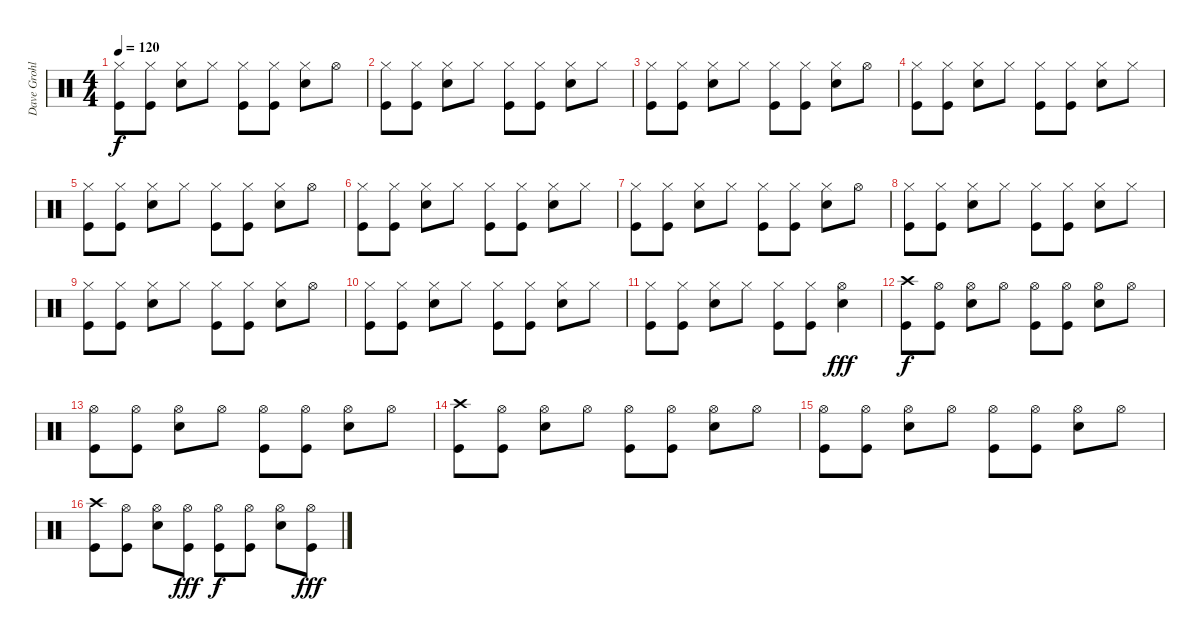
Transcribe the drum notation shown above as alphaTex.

\track ("Dave Grohl - Drums" "Dave Grohl") {instrument percussion}
\staff {score}
\articulation defaults
\ts (4 4)
\tempo 120
\clef neutral
\ks c
("Hi-Hat (closed)" "Kick (hit)").8{dy f} ("Hi-Hat (closed)" "Kick (hit)").8 ("Hi-Hat (closed)" "Snare (hit) 2").8 "Hi-Hat (closed)".8 ("Hi-Hat (closed)" "Kick (hit)").8 ("Hi-Hat (closed)" "Kick (hit)").8 ("Hi-Hat (closed)" "Snare (hit) 2").8 "Hi-Hat (open)".8 |
("Hi-Hat (closed)" "Kick (hit)").8 ("Hi-Hat (closed)" "Kick (hit)").8 ("Hi-Hat (closed)" "Snare (hit) 2").8 "Hi-Hat (closed)".8 ("Hi-Hat (closed)" "Kick (hit)").8 ("Hi-Hat (closed)" "Kick (hit)").8 ("Hi-Hat (closed)" "Snare (hit) 2").8 "Hi-Hat (closed)".8 |
("Hi-Hat (closed)" "Kick (hit)").8 ("Hi-Hat (closed)" "Kick (hit)").8 ("Hi-Hat (closed)" "Snare (hit) 2").8 "Hi-Hat (closed)".8 ("Hi-Hat (closed)" "Kick (hit)").8 ("Hi-Hat (closed)" "Kick (hit)").8 ("Hi-Hat (closed)" "Snare (hit) 2").8 "Hi-Hat (open)".8 |
("Hi-Hat (closed)" "Kick (hit)").8 ("Hi-Hat (closed)" "Kick (hit)").8 ("Hi-Hat (closed)" "Snare (hit) 2").8 "Hi-Hat (closed)".8 ("Hi-Hat (closed)" "Kick (hit)").8 ("Hi-Hat (closed)" "Kick (hit)").8 ("Hi-Hat (closed)" "Snare (hit) 2").8 "Hi-Hat (closed)".8 |
("Hi-Hat (closed)" "Kick (hit)").8 ("Hi-Hat (closed)" "Kick (hit)").8 ("Hi-Hat (closed)" "Snare (hit) 2").8 "Hi-Hat (closed)".8 ("Hi-Hat (closed)" "Kick (hit)").8 ("Hi-Hat (closed)" "Kick (hit)").8 ("Hi-Hat (closed)" "Snare (hit) 2").8 "Hi-Hat (open)".8 |
("Hi-Hat (closed)" "Kick (hit)").8 ("Hi-Hat (closed)" "Kick (hit)").8 ("Hi-Hat (closed)" "Snare (hit) 2").8 "Hi-Hat (closed)".8 ("Hi-Hat (closed)" "Kick (hit)").8 ("Hi-Hat (closed)" "Kick (hit)").8 ("Hi-Hat (closed)" "Snare (hit) 2").8 "Hi-Hat (closed)".8 |
("Hi-Hat (closed)" "Kick (hit)").8 ("Hi-Hat (closed)" "Kick (hit)").8 ("Hi-Hat (closed)" "Snare (hit) 2").8 "Hi-Hat (closed)".8 ("Hi-Hat (closed)" "Kick (hit)").8 ("Hi-Hat (closed)" "Kick (hit)").8 ("Hi-Hat (closed)" "Snare (hit) 2").8 "Hi-Hat (open)".8 |
("Hi-Hat (closed)" "Kick (hit)").8 ("Hi-Hat (closed)" "Kick (hit)").8 ("Hi-Hat (closed)" "Snare (hit) 2").8 "Hi-Hat (closed)".8 ("Hi-Hat (closed)" "Kick (hit)").8 ("Hi-Hat (closed)" "Kick (hit)").8 ("Hi-Hat (closed)" "Snare (hit) 2").8 "Hi-Hat (closed)".8 |
("Hi-Hat (closed)" "Kick (hit)").8 ("Hi-Hat (closed)" "Kick (hit)").8 ("Hi-Hat (closed)" "Snare (hit) 2").8 "Hi-Hat (closed)".8 ("Hi-Hat (closed)" "Kick (hit)").8 ("Hi-Hat (closed)" "Kick (hit)").8 ("Hi-Hat (closed)" "Snare (hit) 2").8 "Hi-Hat (open)".8 |
("Hi-Hat (closed)" "Kick (hit)").8 ("Hi-Hat (closed)" "Kick (hit)").8 ("Hi-Hat (closed)" "Snare (hit) 2").8 "Hi-Hat (closed)".8 ("Hi-Hat (closed)" "Kick (hit)").8 ("Hi-Hat (closed)" "Kick (hit)").8 ("Hi-Hat (closed)" "Snare (hit) 2").8 "Hi-Hat (closed)".8 |
("Hi-Hat (closed)" "Kick (hit)").8 ("Hi-Hat (closed)" "Kick (hit)").8 ("Hi-Hat (closed)" "Snare (hit) 2").8 "Hi-Hat (closed)".8 ("Hi-Hat (closed)" "Kick (hit)").8 ("Hi-Hat (closed)" "Kick (hit)").8 ("Hi-Hat (open)" "Snare (hit) 2").4{dy fff} |
("Crash high (hit)" "Kick (hit)").8{dy f} ("Hi-Hat (open)" "Kick (hit)").8 ("Hi-Hat (open)" "Snare (hit) 2").8 "Hi-Hat (open)".8 ("Hi-Hat (open)" "Kick (hit)").8 ("Hi-Hat (open)" "Kick (hit)").8 ("Hi-Hat (open)" "Snare (hit) 2").8 "Hi-Hat (open)".8 |
("Hi-Hat (open)" "Kick (hit)").8 ("Hi-Hat (open)" "Kick (hit)").8 ("Hi-Hat (open)" "Snare (hit) 2").8 "Hi-Hat (open)".8 ("Hi-Hat (open)" "Kick (hit)").8 ("Hi-Hat (open)" "Kick (hit)").8 ("Hi-Hat (open)" "Snare (hit) 2").8 "Hi-Hat (open)".8 |
("Crash high (hit)" "Kick (hit)").8 ("Hi-Hat (open)" "Kick (hit)").8 ("Hi-Hat (open)" "Snare (hit) 2").8 "Hi-Hat (open)".8 ("Hi-Hat (open)" "Kick (hit)").8 ("Hi-Hat (open)" "Kick (hit)").8 ("Hi-Hat (open)" "Snare (hit) 2").8 "Hi-Hat (open)".8 |
("Hi-Hat (open)" "Kick (hit)").8 ("Hi-Hat (open)" "Kick (hit)").8 ("Hi-Hat (open)" "Snare (hit) 2").8 "Hi-Hat (open)".8 ("Hi-Hat (open)" "Kick (hit)").8 ("Hi-Hat (open)" "Kick (hit)").8 ("Hi-Hat (open)" "Snare (hit) 2").8 "Hi-Hat (open)".8 |
("Crash high (hit)" "Kick (hit)").8 ("Hi-Hat (open)" "Kick (hit)").8 ("Hi-Hat (open)" "Snare (hit) 2").8 ("Hi-Hat (open)" "Kick (hit)").8{dy fff} ("Hi-Hat (open)" "Kick (hit)").8{dy f} ("Hi-Hat (open)" "Kick (hit)").8 ("Hi-Hat (open)" "Snare (hit) 2").8 ("Hi-Hat (open)" "Kick (hit)").8{dy fff}
